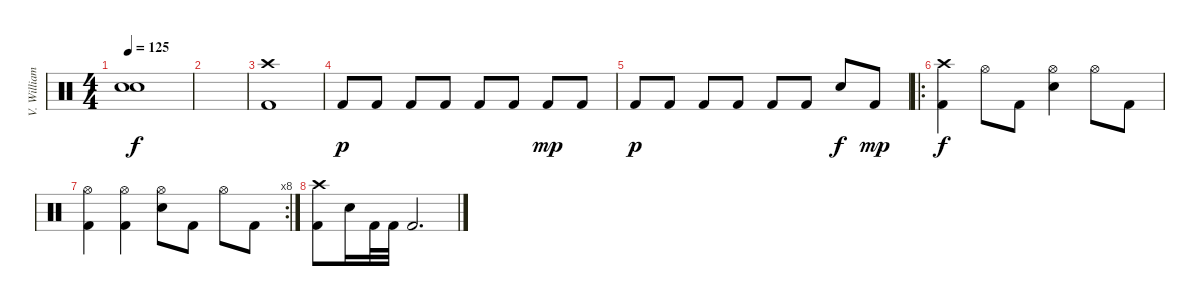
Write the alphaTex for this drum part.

\track ("V. Williams (Drums)" "V. William") {instrument percussion}
\staff {score}
\articulation defaults
\ts (4 4)
\tempo 125
\clef neutral
\ks c
("Snare (hit)"{t} "Snare (hit)"{t}).1{dy f} |
|
("Crash high (hit)" "Kick (hit) 2").1 |
"Kick (hit) 2".8{dy p} "Kick (hit) 2".8 "Kick (hit) 2".8 "Kick (hit) 2".8 "Kick (hit) 2".8 "Kick (hit) 2".8 "Kick (hit) 2".8{dy mp} "Kick (hit) 2".8 |
"Kick (hit) 2".8{dy p} "Kick (hit) 2".8 "Kick (hit) 2".8 "Kick (hit) 2".8 "Kick (hit) 2".8 "Kick (hit) 2".8 "Electric Snare (hit)".8{dy f} "Kick (hit) 2".8{dy mp} |
\ro
("Crash high (hit)" "Kick (hit) 2").4{dy f} "Hi-Hat (open)".8 "Kick (hit) 2".8 ("Hi-Hat (open)" "Electric Snare (hit)").4 "Hi-Hat (open)".8 "Kick (hit) 2".8 |
\rc 8
("Hi-Hat (open)" "Kick (hit) 2").4 ("Hi-Hat (open)" "Kick (hit) 2").4 ("Hi-Hat (open)" "Electric Snare (hit)").8 "Kick (hit) 2".8 "Hi-Hat (open)".8 "Kick (hit) 2".8 |
("Crash high (hit)" "Kick (hit) 2").8 "Electric Snare (hit)".16 "Kick (hit) 2".32 "Kick (hit) 2".32 "Kick (hit) 2".2{d}
